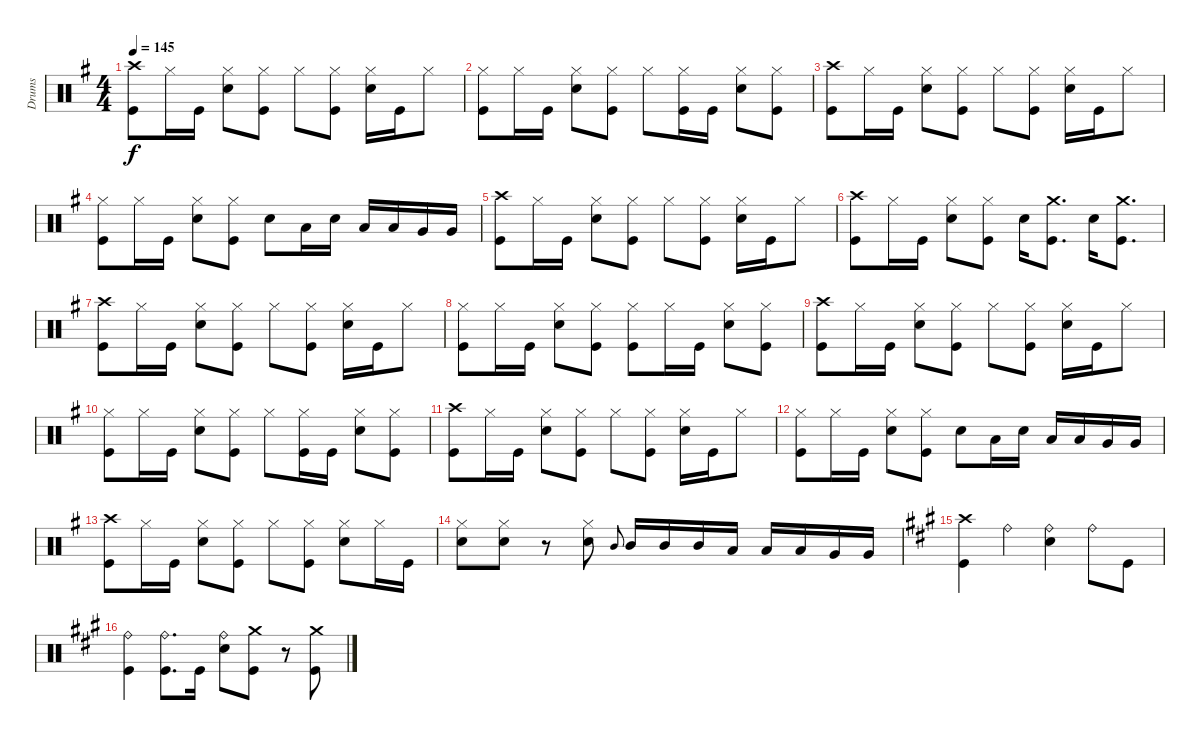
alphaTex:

\track ("Drums" "Drums") {instrument percussion}
\staff {score}
\articulation defaults
\ts (4 4)
\tempo 145
\clef neutral
\ks eminor
("Crash high (hit)" "Kick (hit)").8{dy f} "Hi-Hat (closed)".16 "Kick (hit)".16 ("Hi-Hat (closed)" "Snare (hit) 2").8 ("Hi-Hat (closed)" "Kick (hit)").8 "Hi-Hat (closed)".8 ("Hi-Hat (closed)" "Kick (hit)").8 ("Hi-Hat (closed)" "Snare (hit) 2").16 "Kick (hit)".16 "Hi-Hat (closed)".8 |
("Hi-Hat (closed)" "Kick (hit)").8 "Hi-Hat (closed)".16 "Kick (hit)".16 ("Hi-Hat (closed)" "Snare (hit) 2").8 ("Hi-Hat (closed)" "Kick (hit)").8 "Hi-Hat (closed)".8 ("Hi-Hat (closed)" "Kick (hit)").16 "Kick (hit)".16 ("Hi-Hat (closed)" "Snare (hit) 2").8 ("Hi-Hat (closed)" "Kick (hit)").8 |
("Crash high (hit)" "Kick (hit)").8 "Hi-Hat (closed)".16 "Kick (hit)".16 ("Hi-Hat (closed)" "Snare (hit) 2").8 ("Hi-Hat (closed)" "Kick (hit)").8 "Hi-Hat (closed)".8 ("Hi-Hat (closed)" "Kick (hit)").8 ("Hi-Hat (closed)" "Snare (hit) 2").16 "Kick (hit)".16 "Hi-Hat (closed)".8 |
("Hi-Hat (closed)" "Kick (hit)").8 "Hi-Hat (closed)".16 "Kick (hit)".16 ("Hi-Hat (closed)" "Snare (hit) 2").8 ("Hi-Hat (closed)" "Kick (hit)").8 "Snare (hit) 2".8 "Low Tom (hit)".16 "Snare (hit) 2".16 "Low Tom (hit)".16 "Low Tom (hit)".16 "Very Low Tom (hit)".16 "Very Low Tom (hit)".16 |
("Crash high (hit)" "Kick (hit)").8 "Hi-Hat (closed)".16 "Kick (hit)".16 ("Hi-Hat (closed)" "Snare (hit) 2").8 ("Hi-Hat (closed)" "Kick (hit)").8 "Hi-Hat (closed)".8 ("Hi-Hat (closed)" "Kick (hit)").8 ("Hi-Hat (closed)" "Snare (hit) 2").16 "Kick (hit)".16 "Hi-Hat (closed)".8 |
("Crash high (hit)" "Kick (hit)").8 "Hi-Hat (closed)".16 "Kick (hit)".16 ("Hi-Hat (closed)" "Snare (hit) 2").8 ("Hi-Hat (closed)" "Kick (hit)").8 "Snare (hit) 2".16 ("Crash medium (hit)" "Kick (hit)").8{d} "Snare (hit) 2".16 ("Crash medium (hit)" "Kick (hit)").8{d} |
("Crash high (hit)" "Kick (hit)").8 "Hi-Hat (closed)".16 "Kick (hit)".16 ("Hi-Hat (closed)" "Snare (hit) 2").8 ("Hi-Hat (closed)" "Kick (hit)").8 "Hi-Hat (closed)".8 ("Hi-Hat (closed)" "Kick (hit)").8 ("Hi-Hat (closed)" "Snare (hit) 2").16 "Kick (hit)".16 "Hi-Hat (closed)".8 |
("Hi-Hat (closed)" "Kick (hit)").8 "Hi-Hat (closed)".16 "Kick (hit)".16 ("Hi-Hat (closed)" "Snare (hit) 2").8 ("Hi-Hat (closed)" "Kick (hit)").8 ("Hi-Hat (closed)" "Kick (hit)").8 "Hi-Hat (closed)".16 "Kick (hit)".16 ("Hi-Hat (closed)" "Snare (hit) 2").8 ("Hi-Hat (closed)" "Kick (hit)").8 |
("Crash high (hit)" "Kick (hit)").8 "Hi-Hat (closed)".16 "Kick (hit)".16 ("Hi-Hat (closed)" "Snare (hit) 2").8 ("Hi-Hat (closed)" "Kick (hit)").8 "Hi-Hat (closed)".8 ("Hi-Hat (closed)" "Kick (hit)").8 ("Hi-Hat (closed)" "Snare (hit) 2").16 "Kick (hit)".16 "Hi-Hat (closed)".8 |
("Hi-Hat (closed)" "Kick (hit)").8 "Hi-Hat (closed)".16 "Kick (hit)".16 ("Hi-Hat (closed)" "Snare (hit) 2").8 ("Hi-Hat (closed)" "Kick (hit)").8 "Hi-Hat (closed)".8 ("Hi-Hat (closed)" "Kick (hit)").16 "Kick (hit)".16 ("Hi-Hat (closed)" "Snare (hit) 2").8 ("Hi-Hat (closed)" "Kick (hit)").8 |
("Crash high (hit)" "Kick (hit)").8 "Hi-Hat (closed)".16 "Kick (hit)".16 ("Hi-Hat (closed)" "Snare (hit) 2").8 ("Hi-Hat (closed)" "Kick (hit)").8 "Hi-Hat (closed)".8 ("Hi-Hat (closed)" "Kick (hit)").8 ("Hi-Hat (closed)" "Snare (hit) 2").16 "Kick (hit)".16 "Hi-Hat (closed)".8 |
("Hi-Hat (closed)" "Kick (hit)").8 "Hi-Hat (closed)".16 "Kick (hit)".16 ("Hi-Hat (closed)" "Snare (hit) 2").8 ("Hi-Hat (closed)" "Kick (hit)").8 "Snare (hit) 2".8 "Low Tom (hit)".16 "Snare (hit) 2".16 "Low Tom (hit)".16 "Low Tom (hit)".16 "Very Low Tom (hit)".16 "Very Low Tom (hit)".16 |
("Crash high (hit)" "Kick (hit)").8 "Hi-Hat (closed)".16 "Kick (hit)".16 ("Hi-Hat (closed)" "Snare (hit) 2").8 ("Hi-Hat (closed)" "Kick (hit)").8 "Hi-Hat (closed)".8 ("Hi-Hat (closed)" "Kick (hit)").8 ("Hi-Hat (closed)" "Snare (hit) 2").8 "Hi-Hat (closed)".16 "Kick (hit)".16 |
("Hi-Hat (closed)" "Snare (hit) 2").8 ("Hi-Hat (closed)" "Snare (hit) 2").8 r.8 ("Hi-Hat (closed)" "Snare (hit) 2").8 "Mid Tom (hit)".8{gr onbeat} "Mid Tom (hit)".16 "Mid Tom (hit)".16 "Mid Tom (hit)".16 "Low Tom (hit)".16 "Low Tom (hit)".16 "Low Tom (hit)".16 "Very Low Tom (hit)".16 "Very Low Tom (hit)".16 |
\ks f#minor
("Crash high (hit)" "Kick (hit)").4 "Ride (bell)".4 ("Ride (bell)" "Snare (hit) 2").4 "Ride (bell)".8 "Kick (hit)".8 |
("Ride (bell)" "Kick (hit)").4 ("Ride (bell)" "Kick (hit)").8{d} "Kick (hit)".16 ("Ride (bell)" "Snare (hit) 2").8 ("Crash medium (hit)" "Kick (hit)").8 r.8 ("Crash medium (hit)" "Kick (hit)").8
